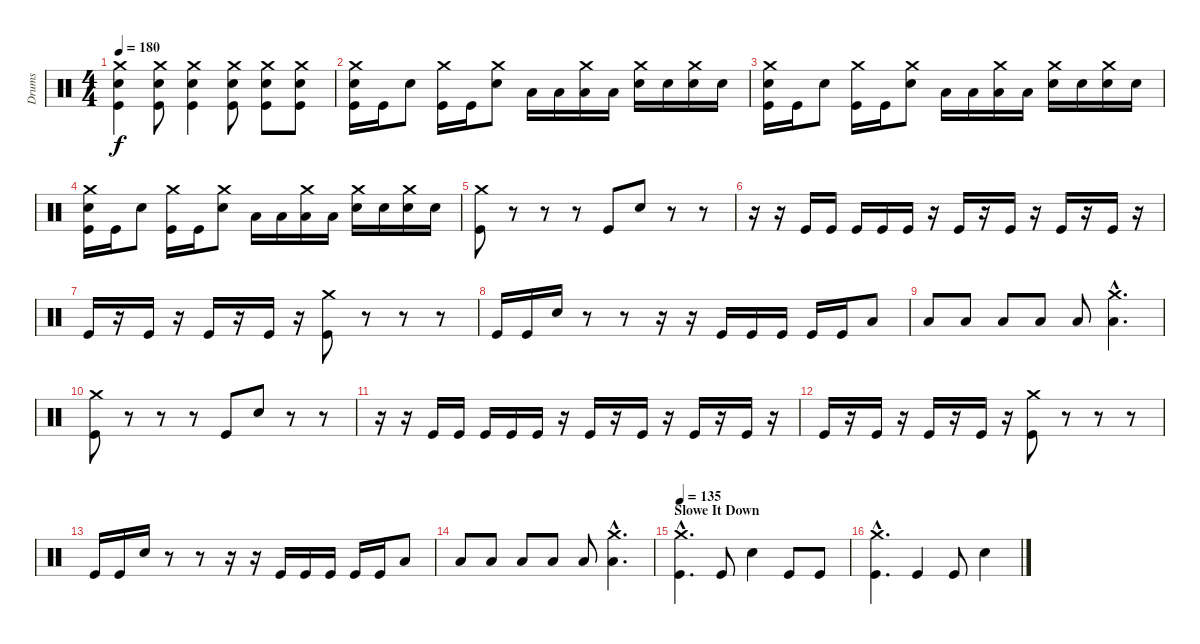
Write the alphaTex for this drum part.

\track ("Drums" "Drums") {instrument percussion}
\staff {score}
\articulation defaults
\ts (4 4)
\tempo 180
\clef neutral
\ks c
("Crash medium (hit)" "Snare (hit) 2" "Kick (hit)").4{dy f} ("Crash medium (hit)" "Snare (hit) 2" "Kick (hit)").8 ("Crash medium (hit)" "Snare (hit) 2" "Kick (hit)").4 ("Crash medium (hit)" "Snare (hit) 2" "Kick (hit)").8 ("Crash medium (hit)" "Snare (hit) 2" "Kick (hit)").8 ("Crash medium (hit)" "Snare (hit) 2" "Kick (hit)").8 |
("Crash medium (hit)" "Snare (hit) 2" "Kick (hit)").16 "Kick (hit)".16 "Snare (hit) 2".8 ("Crash medium (hit)" "Kick (hit)").16 "Kick (hit)".16 ("Crash medium (hit)" "Snare (hit) 2").8 "Low Tom (hit)".16 "Low Tom (hit)".16 ("Crash medium (hit)" "Low Tom (hit)").16 "Low Tom (hit)".16 ("Crash medium (hit)" "Snare (hit) 2").16 "Snare (hit) 2".16 ("Crash medium (hit)" "Snare (hit) 2").16 "Snare (hit) 2".16 |
("Crash medium (hit)" "Snare (hit) 2" "Kick (hit)").16 "Kick (hit)".16 "Snare (hit) 2".8 ("Crash medium (hit)" "Kick (hit)").16 "Kick (hit)".16 ("Crash medium (hit)" "Snare (hit) 2").8 "Low Tom (hit)".16 "Low Tom (hit)".16 ("Crash medium (hit)" "Low Tom (hit)").16 "Low Tom (hit)".16 ("Crash medium (hit)" "Snare (hit) 2").16 "Snare (hit) 2".16 ("Crash medium (hit)" "Snare (hit) 2").16 "Snare (hit) 2".16 |
("Crash medium (hit)" "Snare (hit) 2" "Kick (hit)").16 "Kick (hit)".16 "Snare (hit) 2".8 ("Crash medium (hit)" "Kick (hit)").16 "Kick (hit)".16 ("Crash medium (hit)" "Snare (hit) 2").8 "Low Tom (hit)".16 "Low Tom (hit)".16 ("Crash medium (hit)" "Low Tom (hit)").16 "Low Tom (hit)".16 ("Crash medium (hit)" "Snare (hit) 2").16 "Snare (hit) 2".16 ("Crash medium (hit)" "Snare (hit) 2").16 "Snare (hit) 2".16 |
("Crash medium (hit)" "Kick (hit)").8 r.8 r.8 r.8 "Kick (hit)".8 "Snare (hit) 2".8 r.8 r.8 |
r.16 r.16 "Kick (hit)".16 "Kick (hit)".16 "Kick (hit)".16 "Kick (hit)".16 "Kick (hit)".16 r.16 "Kick (hit)".16 r.16 "Kick (hit)".16 r.16 "Kick (hit)".16 r.16 "Kick (hit)".16 r.16 |
"Kick (hit)".16 r.16 "Kick (hit)".16 r.16 "Kick (hit)".16 r.16 "Kick (hit)".16 r.16 ("Crash medium (hit)" "Kick (hit)").8 r.8 r.8 r.8 |
"Kick (hit)".16 "Kick (hit)".16 "Snare (hit) 2".16 r.8 r.8 r.16 r.16 "Kick (hit)".16 "Kick (hit)".16 "Kick (hit)".16 "Kick (hit)".16 "Kick (hit)".16 "Low Tom (hit)".8 |
"Low Tom (hit)".8 "Low Tom (hit)".8 "Low Tom (hit)".8 "Low Tom (hit)".8 "Low Tom (hit)".8 ("Crash medium (hit)"{hac} "Low Tom (hit)"{hac}).4{d} |
("Crash medium (hit)" "Kick (hit)").8 r.8 r.8 r.8 "Kick (hit)".8 "Snare (hit) 2".8 r.8 r.8 |
r.16 r.16 "Kick (hit)".16 "Kick (hit)".16 "Kick (hit)".16 "Kick (hit)".16 "Kick (hit)".16 r.16 "Kick (hit)".16 r.16 "Kick (hit)".16 r.16 "Kick (hit)".16 r.16 "Kick (hit)".16 r.16 |
"Kick (hit)".16 r.16 "Kick (hit)".16 r.16 "Kick (hit)".16 r.16 "Kick (hit)".16 r.16 ("Crash medium (hit)" "Kick (hit)").8 r.8 r.8 r.8 |
"Kick (hit)".16 "Kick (hit)".16 "Snare (hit) 2".16 r.8 r.8 r.16 r.16 "Kick (hit)".16 "Kick (hit)".16 "Kick (hit)".16 "Kick (hit)".16 "Kick (hit)".16 "Low Tom (hit)".8 |
"Low Tom (hit)".8 "Low Tom (hit)".8 "Low Tom (hit)".8 "Low Tom (hit)".8 "Low Tom (hit)".8 ("Crash medium (hit)"{hac} "Low Tom (hit)"{hac}).4{d} |
\section ("" "Slowe It Down")
\tempo 135
("Crash medium (hit)"{hac} "Kick (hit)"{hac}).4{d} "Kick (hit)".8 "Snare (hit) 2".4 "Kick (hit)".8 "Kick (hit)".8 |
("Crash medium (hit)"{hac} "Kick (hit)"{hac}).4{d} "Kick (hit)".4 "Kick (hit)".8 "Snare (hit) 2".4
